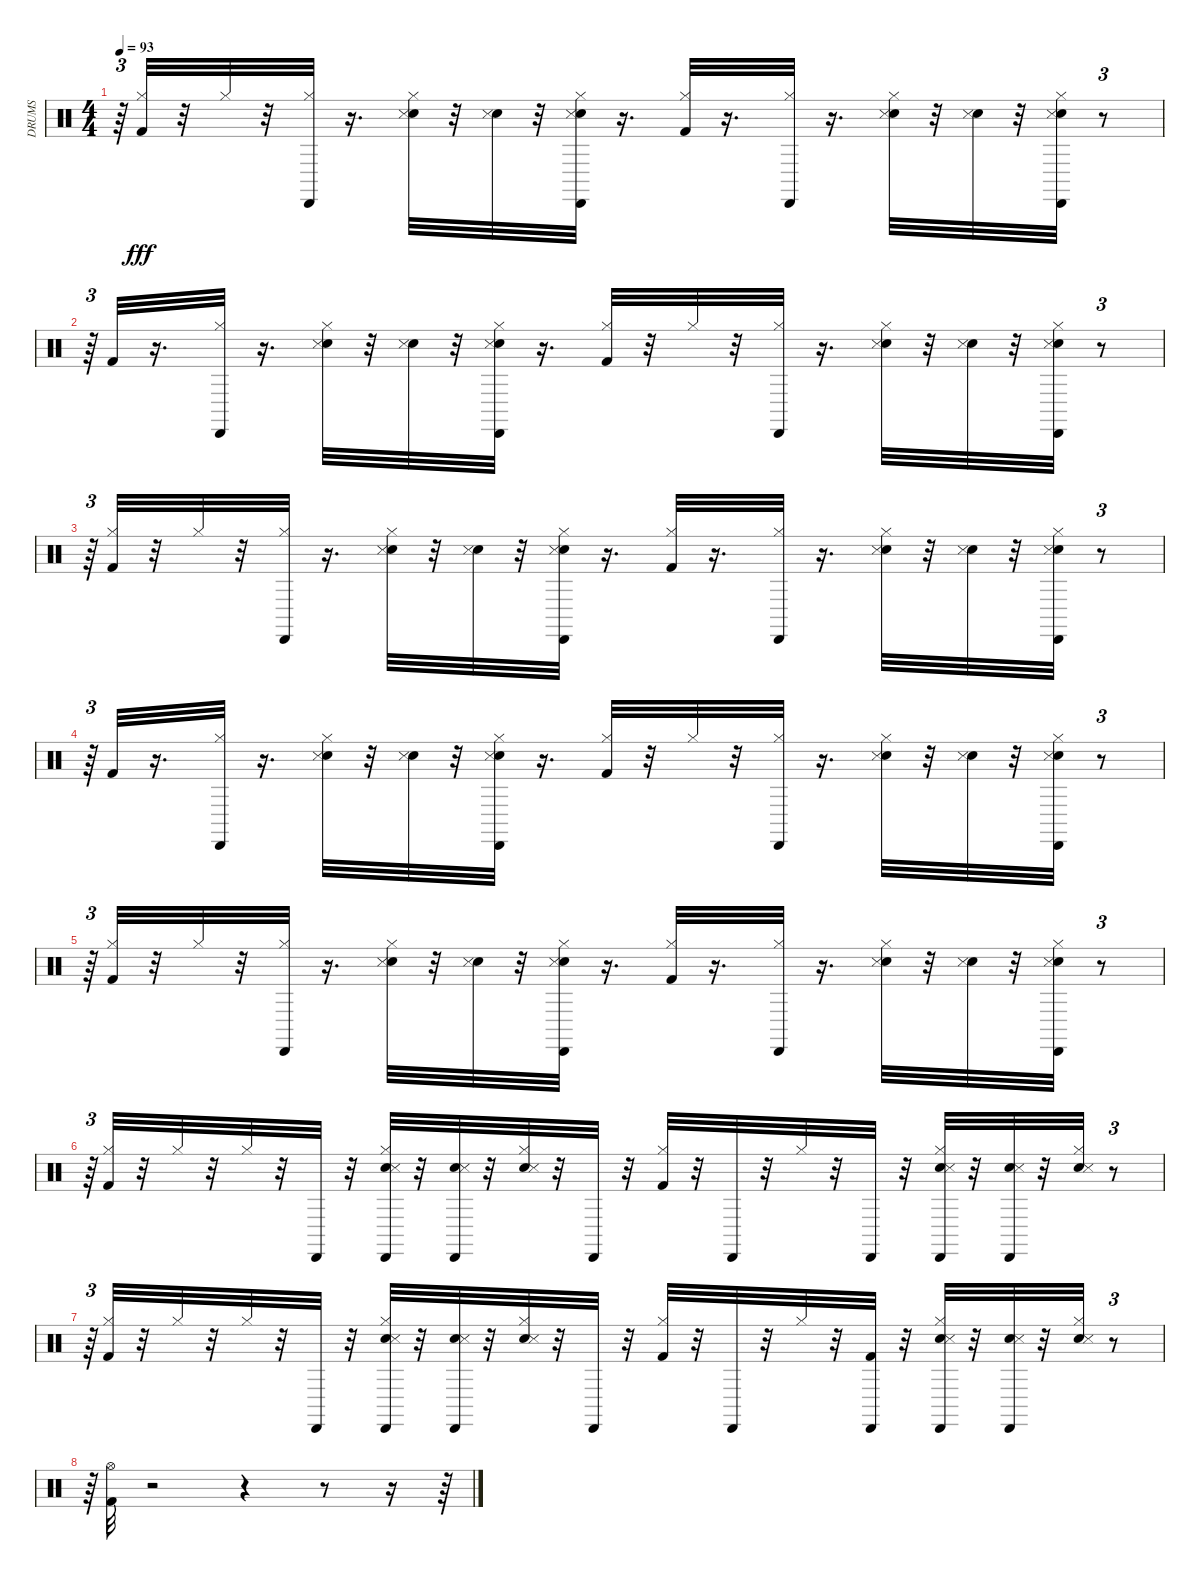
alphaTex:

\track ("DRUMS   " "DRUMS   ") {instrument percussion}
\staff {score}
\articulation defaults
\ts (4 4)
\tempo 93
\clef neutral
\ks c
r.64{tu (3 2) dy fff} ("Kick (hit) 2" "Hi-Hat (closed)").32 r.32 "Hi-Hat (closed)".32 r.32 ("Hi-Hat (closed)" "Cabasa (hit)").32 r.16{d} ("Snare (hit) 2" "Hi-Hat (closed)" "Snare (side stick) 3").32 r.32 ("Snare (hit) 2" "Snare (side stick) 3").32 r.32 ("Snare (hit) 2" "Hi-Hat (closed)" "Snare (side stick) 3" "Cabasa (hit)").32 r.16{d} ("Kick (hit) 2" "Hi-Hat (closed)").32 r.16{d} ("Hi-Hat (closed)" "Cabasa (hit)").32 r.16{d} ("Snare (hit) 2" "Hi-Hat (closed)" "Snare (side stick) 3").32 r.32 ("Snare (hit) 2" "Snare (side stick) 3").32 r.32 ("Snare (hit) 2" "Hi-Hat (closed)" "Snare (side stick) 3" "Cabasa (hit)").32 r.8{tu (3 2)} |
r.64{tu (3 2)} "Kick (hit) 2".32 r.16{d} ("Hi-Hat (closed)" "Cabasa (hit)").32 r.16{d} ("Snare (hit) 2" "Hi-Hat (closed)" "Snare (side stick) 3").32 r.32 ("Snare (hit) 2" "Snare (side stick) 3").32 r.32 ("Snare (hit) 2" "Hi-Hat (closed)" "Snare (side stick) 3" "Cabasa (hit)").32 r.16{d} ("Kick (hit) 2" "Hi-Hat (closed)").32 r.32 "Hi-Hat (closed)".32 r.32 ("Hi-Hat (closed)" "Cabasa (hit)").32 r.16{d} ("Snare (hit) 2" "Hi-Hat (closed)" "Snare (side stick) 3").32 r.32 ("Snare (hit) 2" "Snare (side stick) 3").32 r.32 ("Snare (hit) 2" "Hi-Hat (closed)" "Snare (side stick) 3" "Cabasa (hit)").32 r.8{tu (3 2)} |
r.64{tu (3 2)} ("Kick (hit) 2" "Hi-Hat (closed)").32 r.32 "Hi-Hat (closed)".32 r.32 ("Hi-Hat (closed)" "Cabasa (hit)").32 r.16{d} ("Snare (hit) 2" "Hi-Hat (closed)" "Snare (side stick) 3").32 r.32 ("Snare (hit) 2" "Snare (side stick) 3").32 r.32 ("Snare (hit) 2" "Hi-Hat (closed)" "Snare (side stick) 3" "Cabasa (hit)").32 r.16{d} ("Kick (hit) 2" "Hi-Hat (closed)").32 r.16{d} ("Hi-Hat (closed)" "Cabasa (hit)").32 r.16{d} ("Snare (hit) 2" "Hi-Hat (closed)" "Snare (side stick) 3").32 r.32 ("Snare (hit) 2" "Snare (side stick) 3").32 r.32 ("Snare (hit) 2" "Hi-Hat (closed)" "Snare (side stick) 3" "Cabasa (hit)").32 r.8{tu (3 2)} |
r.64{tu (3 2)} "Kick (hit) 2".32 r.16{d} ("Hi-Hat (closed)" "Cabasa (hit)").32 r.16{d} ("Snare (hit) 2" "Hi-Hat (closed)" "Snare (side stick) 3").32 r.32 ("Snare (hit) 2" "Snare (side stick) 3").32 r.32 ("Snare (hit) 2" "Hi-Hat (closed)" "Snare (side stick) 3" "Cabasa (hit)").32 r.16{d} ("Kick (hit) 2" "Hi-Hat (closed)").32 r.32 "Hi-Hat (closed)".32 r.32 ("Hi-Hat (closed)" "Cabasa (hit)").32 r.16{d} ("Snare (hit) 2" "Hi-Hat (closed)" "Snare (side stick) 3").32 r.32 ("Snare (hit) 2" "Snare (side stick) 3").32 r.32 ("Snare (hit) 2" "Hi-Hat (closed)" "Snare (side stick) 3" "Cabasa (hit)").32 r.8{tu (3 2)} |
r.64{tu (3 2)} ("Kick (hit) 2" "Hi-Hat (closed)").32 r.32 "Hi-Hat (closed)".32 r.32 ("Hi-Hat (closed)" "Cabasa (hit)").32 r.16{d} ("Snare (hit) 2" "Hi-Hat (closed)" "Snare (side stick) 3").32 r.32 ("Snare (hit) 2" "Snare (side stick) 3").32 r.32 ("Snare (hit) 2" "Hi-Hat (closed)" "Snare (side stick) 3" "Cabasa (hit)").32 r.16{d} ("Kick (hit) 2" "Hi-Hat (closed)").32 r.16{d} ("Hi-Hat (closed)" "Cabasa (hit)").32 r.16{d} ("Snare (hit) 2" "Hi-Hat (closed)" "Snare (side stick) 3").32 r.32 ("Snare (hit) 2" "Snare (side stick) 3").32 r.32 ("Snare (hit) 2" "Hi-Hat (closed)" "Snare (side stick) 3" "Cabasa (hit)").32 r.8{tu (3 2)} |
r.64{tu (3 2)} ("Kick (hit) 2" "Hi-Hat (closed)").32 r.32 "Hi-Hat (closed)".32 r.32 "Hi-Hat (closed)".32 r.32 "Cabasa (hit)".32 r.32 ("Snare (hit) 2" "Hi-Hat (closed)" "Snare (side stick) 3" "Cabasa (hit)").32 r.32 ("Snare (hit) 2" "Snare (side stick) 3" "Cabasa (hit)").32 r.32 ("Snare (hit) 2" "Hi-Hat (closed)" "Snare (side stick) 3").32 r.32 "Cabasa (hit)".32 r.32 ("Kick (hit) 2" "Hi-Hat (closed)").32 r.32 "Cabasa (hit)".32 r.32 "Hi-Hat (closed)".32 r.32 "Cabasa (hit)".32 r.32 ("Snare (hit) 2" "Hi-Hat (closed)" "Snare (side stick) 3" "Cabasa (hit)").32 r.32 ("Snare (hit) 2" "Snare (side stick) 3" "Cabasa (hit)").32 r.32 ("Snare (hit) 2" "Hi-Hat (closed)" "Snare (side stick) 3").32 r.8{tu (3 2)} |
r.64{tu (3 2)} ("Kick (hit) 2" "Hi-Hat (closed)").32 r.32 "Hi-Hat (closed)".32 r.32 "Hi-Hat (closed)".32 r.32 "Cabasa (hit)".32 r.32 ("Snare (hit) 2" "Hi-Hat (closed)" "Snare (side stick) 3" "Cabasa (hit)").32 r.32 ("Snare (hit) 2" "Snare (side stick) 3" "Cabasa (hit)").32 r.32 ("Snare (hit) 2" "Hi-Hat (closed)" "Snare (side stick) 3").32 r.32 "Cabasa (hit)".32 r.32 ("Kick (hit) 2" "Hi-Hat (closed)").32 r.32 "Cabasa (hit)".32 r.32 "Hi-Hat (closed)".32 r.32 ("Kick (hit) 2" "Cabasa (hit)").32 r.32 ("Snare (hit) 2" "Hi-Hat (closed)" "Snare (side stick) 3" "Cabasa (hit)").32 r.32 ("Snare (hit) 2" "Snare (side stick) 3" "Cabasa (hit)").32 r.32 ("Snare (hit) 2" "Hi-Hat (closed)" "Snare (side stick) 3").32 r.8{tu (3 2)} |
r.64{tu (3 2)} ("Kick (hit) 2" "Hi-Hat (open)").32 r.2 r.4 r.8 r.16 r.64
